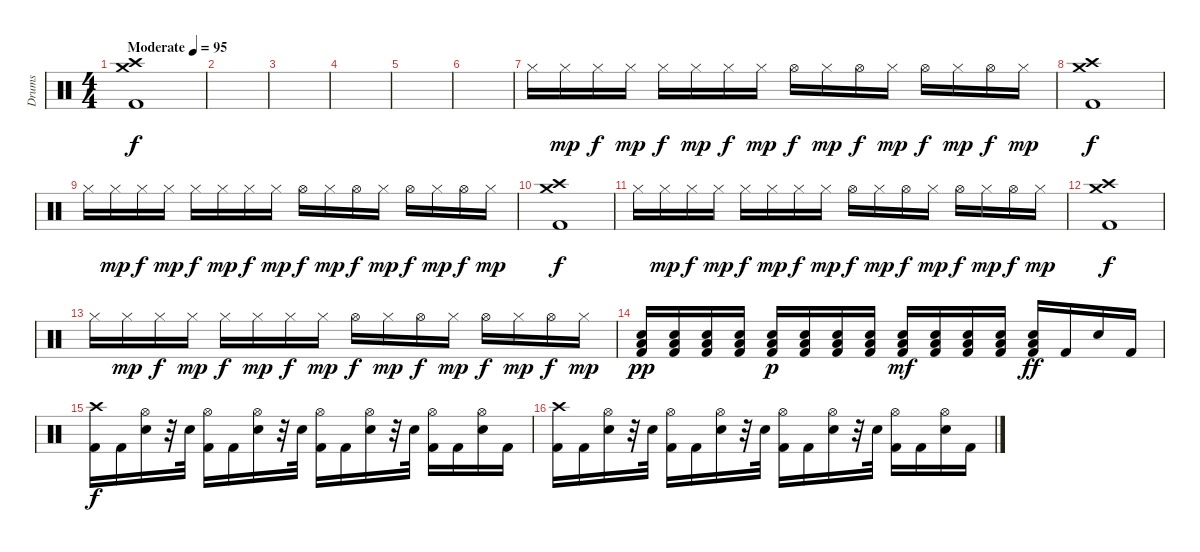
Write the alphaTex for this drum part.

\track ("Drums" "Drums") {instrument percussion}
\staff {score}
\articulation defaults
\ts (4 4)
\tempo (95 "Moderate")
\clef neutral
\ks c
("Crash medium (hit)" "Kick (hit) 2" "Crash high (hit)").1{dy f} |
|
|
|
|
|
"Hi-Hat (closed)".16 "Hi-Hat (closed)".16{dy mp} "Hi-Hat (closed)".16{dy f} "Hi-Hat (closed)".16{dy mp} "Hi-Hat (closed)".16{dy f} "Hi-Hat (closed)".16{dy mp} "Hi-Hat (closed)".16{dy f} "Hi-Hat (closed)".16{dy mp} "Hi-Hat (open)".16{dy f} "Hi-Hat (closed)".16{dy mp} "Hi-Hat (open)".16{dy f} "Hi-Hat (closed)".16{dy mp} "Hi-Hat (open)".16{dy f} "Hi-Hat (closed)".16{dy mp} "Hi-Hat (open)".16{dy f} "Hi-Hat (closed)".16{dy mp} |
("Crash medium (hit)" "Kick (hit) 2" "Crash high (hit)").1{dy f} |
"Hi-Hat (closed)".16 "Hi-Hat (closed)".16{dy mp} "Hi-Hat (closed)".16{dy f} "Hi-Hat (closed)".16{dy mp} "Hi-Hat (closed)".16{dy f} "Hi-Hat (closed)".16{dy mp} "Hi-Hat (closed)".16{dy f} "Hi-Hat (closed)".16{dy mp} "Hi-Hat (open)".16{dy f} "Hi-Hat (closed)".16{dy mp} "Hi-Hat (open)".16{dy f} "Hi-Hat (closed)".16{dy mp} "Hi-Hat (open)".16{dy f} "Hi-Hat (closed)".16{dy mp} "Hi-Hat (open)".16{dy f} "Hi-Hat (closed)".16{dy mp} |
("Crash medium (hit)" "Kick (hit) 2" "Crash high (hit)").1{dy f} |
"Hi-Hat (closed)".16 "Hi-Hat (closed)".16{dy mp} "Hi-Hat (closed)".16{dy f} "Hi-Hat (closed)".16{dy mp} "Hi-Hat (closed)".16{dy f} "Hi-Hat (closed)".16{dy mp} "Hi-Hat (closed)".16{dy f} "Hi-Hat (closed)".16{dy mp} "Hi-Hat (open)".16{dy f} "Hi-Hat (closed)".16{dy mp} "Hi-Hat (open)".16{dy f} "Hi-Hat (closed)".16{dy mp} "Hi-Hat (open)".16{dy f} "Hi-Hat (closed)".16{dy mp} "Hi-Hat (open)".16{dy f} "Hi-Hat (closed)".16{dy mp} |
("Crash medium (hit)" "Kick (hit) 2" "Crash high (hit)").1{dy f} |
"Hi-Hat (closed)".16 "Hi-Hat (closed)".16{dy mp} "Hi-Hat (closed)".16{dy f} "Hi-Hat (closed)".16{dy mp} "Hi-Hat (closed)".16{dy f} "Hi-Hat (closed)".16{dy mp} "Hi-Hat (closed)".16{dy f} "Hi-Hat (closed)".16{dy mp} "Hi-Hat (open)".16{dy f} "Hi-Hat (closed)".16{dy mp} "Hi-Hat (open)".16{dy f} "Hi-Hat (closed)".16{dy mp} "Hi-Hat (open)".16{dy f} "Hi-Hat (closed)".16{dy mp} "Hi-Hat (open)".16{dy f} "Hi-Hat (closed)".16{dy mp} |
("Snare (hit) 2" "Low Floor Tom (hit)" "Kick (hit) 2").16{dy pp} ("Snare (hit) 2" "Low Floor Tom (hit)" "Kick (hit) 2").16 ("Snare (hit) 2" "Low Floor Tom (hit)" "Kick (hit) 2").16 ("Snare (hit) 2" "Low Floor Tom (hit)" "Kick (hit) 2").16 ("Snare (hit) 2" "Low Floor Tom (hit)" "Kick (hit) 2").16{dy p} ("Snare (hit) 2" "Low Floor Tom (hit)" "Kick (hit) 2").16 ("Snare (hit) 2" "Low Floor Tom (hit)" "Kick (hit) 2").16 ("Snare (hit) 2" "Low Floor Tom (hit)" "Kick (hit) 2").16 ("Snare (hit) 2" "Low Floor Tom (hit)" "Kick (hit) 2").16{dy mf} ("Snare (hit) 2" "Low Floor Tom (hit)" "Kick (hit) 2").16 ("Snare (hit) 2" "Low Floor Tom (hit)" "Kick (hit) 2").16 ("Snare (hit) 2" "Low Floor Tom (hit)" "Kick (hit) 2").16 ("Snare (hit) 2" "Low Floor Tom (hit)" "Kick (hit) 2").16{dy ff} "Kick (hit) 2".16 "Snare (hit) 2".16 "Kick (hit) 2".16 |
("Crash high (hit)" "Kick (hit) 2").16{dy f} "Kick (hit) 2".16 ("Hi-Hat (open)" "Snare (hit) 2").16 r.32 "Snare (hit) 2".32 ("Hi-Hat (open)" "Kick (hit) 2").16 "Kick (hit) 2".16 ("Hi-Hat (open)" "Snare (hit) 2").16 r.32 "Snare (hit) 2".32 ("Hi-Hat (open)" "Kick (hit) 2").16 "Kick (hit) 2".16 ("Hi-Hat (open)" "Snare (hit) 2").16 r.32 "Snare (hit) 2".32 ("Hi-Hat (open)" "Kick (hit) 2").16 "Kick (hit) 2".16 ("Hi-Hat (open)" "Snare (hit) 2").16 "Kick (hit) 2".16 |
("Crash high (hit)" "Kick (hit) 2").16 "Kick (hit) 2".16 ("Hi-Hat (open)" "Snare (hit) 2").16 r.32 "Snare (hit) 2".32 ("Hi-Hat (open)" "Kick (hit) 2").16 "Kick (hit) 2".16 ("Hi-Hat (open)" "Snare (hit) 2").16 r.32 "Snare (hit) 2".32 ("Hi-Hat (open)" "Kick (hit) 2").16 "Kick (hit) 2".16 ("Hi-Hat (open)" "Snare (hit) 2").16 r.32 "Snare (hit) 2".32 ("Hi-Hat (open)" "Kick (hit) 2").16 "Kick (hit) 2".16 ("Hi-Hat (open)" "Snare (hit) 2").16 "Kick (hit) 2".16
